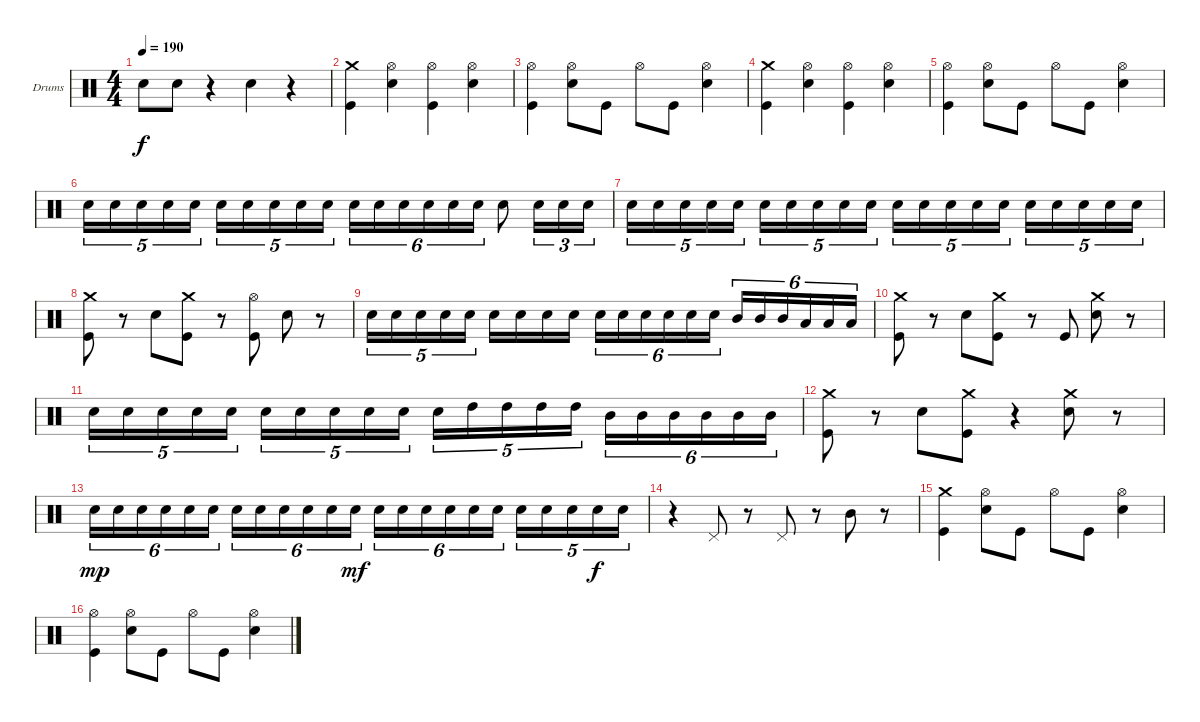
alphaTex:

\bracketExtendMode groupsimilarinstruments
\firstSystemTrackNameOrientation horizontal
\otherSystemsTrackNameOrientation horizontal
\track ("Drumkit" "Drums") {instrument percussion}
\staff {score}
\articulation defaults
\ts (4 4)
\tempo 190
\clef neutral
\ks c "Snare (hit) 2".8{dy f} "Snare (hit) 2".8
r.4 "Snare (hit) 2".4 r.4 |
("Kick (hit)" "Crash medium (hit)").4 ("Snare (hit) 2" "Hi-Hat (open)").4 ("Hi-Hat (open)" "Kick (hit)").4 ("Snare (hit) 2" "Hi-Hat (open)").4 |
("Kick (hit)" "Hi-Hat (open)").4 ("Snare (hit) 2" "Hi-Hat (open)").8 "Kick (hit)".8 "Hi-Hat (open)".8 "Kick (hit)".8 ("Snare (hit) 2" "Hi-Hat (open)").4 |
("Kick (hit)" "Crash medium (hit)").4 ("Hi-Hat (open)" "Snare (hit) 2").4 ("Kick (hit)" "Hi-Hat (open)").4 ("Snare (hit) 2" "Hi-Hat (open)").4 |
("Hi-Hat (open)" "Kick (hit)").4 ("Snare (hit) 2" "Hi-Hat (open)").8 "Kick (hit)".8 "Hi-Hat (open)".8 "Kick (hit)".8 ("Hi-Hat (open)" "Snare (hit) 2").4 |
"Snare (hit) 2".16{tu (5 4)} "Snare (hit) 2".16{tu (5 4)} "Snare (hit) 2".16{tu (5 4)} "Snare (hit) 2".16{tu (5 4)} "Snare (hit) 2".16{tu (5 4)} "Snare (hit) 2".16{tu (5 4)} "Snare (hit) 2".16{tu (5 4)} "Snare (hit) 2".16{tu (5 4)} "Snare (hit) 2".16{tu (5 4)} "Snare (hit) 2".16{tu (5 4)} "Snare (hit) 2".16{tu (6 4)} "Snare (hit) 2".16{tu (6 4)} "Snare (hit) 2".16{tu (6 4)} "Snare (hit) 2".16{tu (6 4)} "Snare (hit) 2".16{tu (6 4)} "Snare (hit) 2".16{tu (6 4)} "Snare (hit) 2".8 "Snare (hit) 2".16{tu (3 2)} "Snare (hit) 2".16{tu (3 2)} "Snare (hit) 2".16{tu (3 2)} |
"Snare (hit) 2".16{tu (5 4)} "Snare (hit) 2".16{tu (5 4)} "Snare (hit) 2".16{tu (5 4)} "Snare (hit) 2".16{tu (5 4)} "Snare (hit) 2".16{tu (5 4)} "Snare (hit) 2".16{tu (5 4)} "Snare (hit) 2".16{tu (5 4)} "Snare (hit) 2".16{tu (5 4)} "Snare (hit) 2".16{tu (5 4)} "Snare (hit) 2".16{tu (5 4)} "Snare (hit) 2".16{tu (5 4)} "Snare (hit) 2".16{tu (5 4)} "Snare (hit) 2".16{tu (5 4)} "Snare (hit) 2".16{tu (5 4)} "Snare (hit) 2".16{tu (5 4)} "Snare (hit) 2".16{tu (5 4)} "Snare (hit) 2".16{tu (5 4)} "Snare (hit) 2".16{tu (5 4)} "Snare (hit) 2".16{tu (5 4)} "Snare (hit) 2".16{tu (5 4)} |
("Crash medium (hit)" "Kick (hit)").8 r.8 "Snare (hit) 2".8 ("Kick (hit)" "Crash medium (hit)").8 r.8 ("Hi-Hat (open)" "Kick (hit)").8 "Snare (hit) 2".8 r.8 |
"Snare (hit) 2".16{tu (5 4)} "Snare (hit) 2".16{tu (5 4)} "Snare (hit) 2".16{tu (5 4)} "Snare (hit) 2".16{tu (5 4)} "Snare (hit) 2".16{tu (5 4)} "Snare (hit) 2".16 "Snare (hit) 2".16 "Snare (hit) 2".16 "Snare (hit) 2".16 "Snare (hit) 2".16{tu (6 4)} "Snare (hit) 2".16{tu (6 4)} "Snare (hit) 2".16{tu (6 4)} "Snare (hit) 2".16{tu (6 4)} "Snare (hit) 2".16{tu (6 4)} "Snare (hit) 2".16{tu (6 4)} "Mid Tom (hit)".16{tu (6 4)} "Mid Tom (hit)".16{tu (6 4)} "Mid Tom (hit)".16{tu (6 4)} "Low Tom (hit)".16{tu (6 4)} "Low Tom (hit)".16{tu (6 4)} "Low Tom (hit)".16{tu (6 4)} |
("Crash medium (hit)" "Kick (hit)").8 r.8 "Snare (hit) 2".8 ("Crash medium (hit)" "Kick (hit)").8 r.8 "Kick (hit)".8 ("Snare (hit) 2" "Crash medium (hit)").8 r.8 |
"Snare (hit) 2".16{tu (5 4)} "Snare (hit) 2".16{tu (5 4)} "Snare (hit) 2".16{tu (5 4)} "Snare (hit) 2".16{tu (5 4)} "Snare (hit) 2".16{tu (5 4)} "Snare (hit) 2".16{tu (5 4)} "Snare (hit) 2".16{tu (5 4)} "Snare (hit) 2".16{tu (5 4)} "Snare (hit) 2".16{tu (5 4)} "Snare (hit) 2".16{tu (5 4)} "Snare (hit) 2".16{tu (5 4)} "High Tom (hit)".16{tu (5 4)} "High Tom (hit)".16{tu (5 4)} "High Tom (hit)".16{tu (5 4)} "High Tom (hit)".16{tu (5 4)} "Mid Tom (hit)".16{tu (6 4)} "Mid Tom (hit)".16{tu (6 4)} "Mid Tom (hit)".16{tu (6 4)} "Mid Tom (hit)".16{tu (6 4)} "Mid Tom (hit)".16{tu (6 4)} "Mid Tom (hit)".16{tu (6 4)} |
("Crash medium (hit)" "Kick (hit)").8 r.8 "Snare (hit) 2".8 ("Kick (hit)" "Crash medium (hit)").8 r.4 ("Snare (hit) 2" "Crash medium (hit)").8 r.8 |
"Snare (hit) 2".16{tu (6 4) dy mp} "Snare (hit) 2".16{tu (6 4)} "Snare (hit) 2".16{tu (6 4)} "Snare (hit) 2".16{tu (6 4)} "Snare (hit) 2".16{tu (6 4)} "Snare (hit) 2".16{tu (6 4)} "Snare (hit) 2".16{tu (6 4)} "Snare (hit) 2".16{tu (6 4)} "Snare (hit) 2".16{tu (6 4)} "Snare (hit) 2".16{tu (6 4)} "Snare (hit) 2".16{tu (6 4)} "Snare (hit) 2".16{tu (6 4) dy mf} "Snare (hit) 2".16{tu (6 4)} "Snare (hit) 2".16{tu (6 4)} "Snare (hit) 2".16{tu (6 4)} "Snare (hit) 2".16{tu (6 4)} "Snare (hit) 2".16{tu (6 4)} "Snare (hit) 2".16{tu (6 4)} "Snare (hit) 2".16{tu (5 4)} "Snare (hit) 2".16{tu (5 4)} "Snare (hit) 2".16{tu (5 4)} "Snare (hit) 2".16{tu (5 4) dy f} "Snare (hit) 2".16{tu (5 4)} |
r.4 "Pedal Hi-Hat (hit)".8 r.8 "Pedal Hi-Hat (hit)".8 r.8 "Mid Tom (hit)".8 r.8 |
("Crash medium (hit)" "Kick (hit)").4 ("Hi-Hat (open)" "Snare (hit) 2").8 "Kick (hit)".8 "Hi-Hat (open)".8 "Kick (hit)".8 ("Snare (hit) 2" "Hi-Hat (open)").4 |
("Kick (hit)" "Hi-Hat (open)").4 ("Snare (hit) 2" "Hi-Hat (open)").8 "Kick (hit)".8 "Hi-Hat (open)".8 "Kick (hit)".8 ("Hi-Hat (open)" "Snare (hit) 2").4
